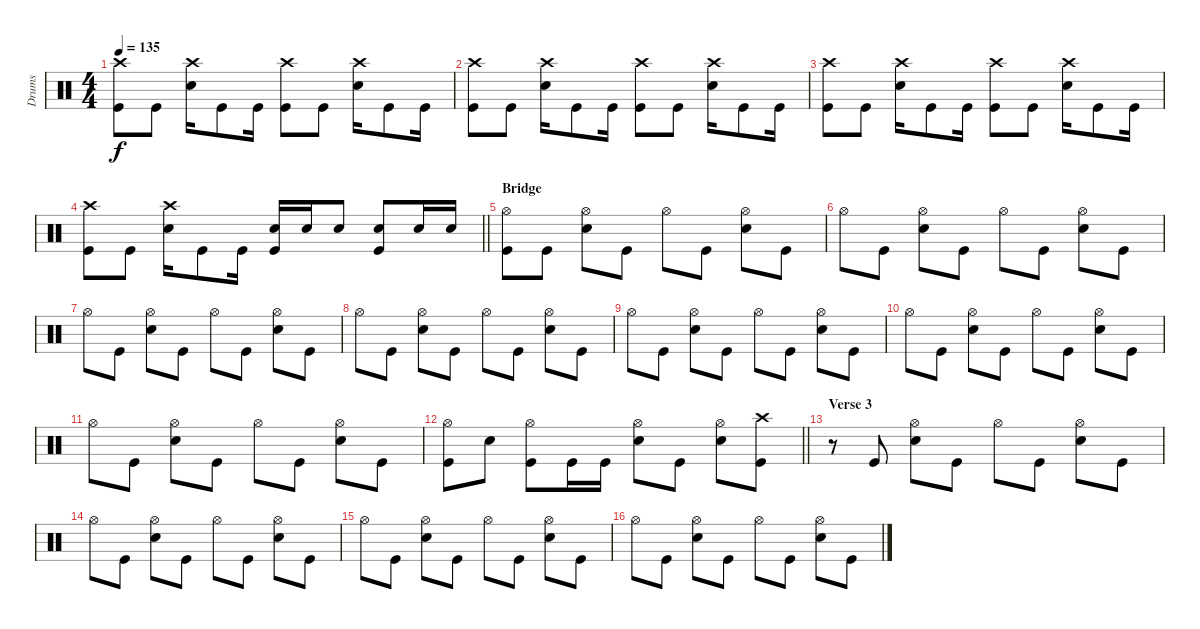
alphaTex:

\track ("Drums" "Drums") {instrument percussion}
\staff {score}
\articulation defaults
\ts (4 4)
\tempo 135
\clef neutral
\ks c
("Kick (hit)" "Crash high (hit)").8{dy f} "Kick (hit)".8 ("Snare (hit) 2" "Crash high (hit)").16 "Kick (hit)".8 "Kick (hit)".16 ("Kick (hit)" "Crash high (hit)").8 "Kick (hit)".8 ("Snare (hit) 2" "Crash high (hit)").16 "Kick (hit)".8 "Kick (hit)".16 |
("Kick (hit)" "Crash high (hit)").8 "Kick (hit)".8 ("Snare (hit) 2" "Crash high (hit)").16 "Kick (hit)".8 "Kick (hit)".16 ("Kick (hit)" "Crash high (hit)").8 "Kick (hit)".8 ("Snare (hit) 2" "Crash high (hit)").16 "Kick (hit)".8 "Kick (hit)".16 |
("Kick (hit)" "Crash high (hit)").8 "Kick (hit)".8 ("Snare (hit) 2" "Crash high (hit)").16 "Kick (hit)".8 "Kick (hit)".16 ("Kick (hit)" "Crash high (hit)").8 "Kick (hit)".8 ("Snare (hit) 2" "Crash high (hit)").16 "Kick (hit)".8 "Kick (hit)".16 |
\barLineRight lightlight
("Kick (hit)" "Crash high (hit)").8 "Kick (hit)".8 ("Snare (hit) 2" "Crash high (hit)").16 "Kick (hit)".8 "Kick (hit)".16 ("Kick (hit)" "Snare (hit) 2").16 "Snare (hit) 2".16 "Snare (hit) 2".8 ("Kick (hit)" "Snare (hit) 2").8 "Snare (hit) 2".16 "Snare (hit) 2".16 |
\section ("" "Bridge")
("Kick (hit)" "Hi-Hat (open)").8 "Kick (hit)".8 ("Snare (hit) 2" "Hi-Hat (open)").8 "Kick (hit)".8 "Hi-Hat (open)".8 "Kick (hit)".8 ("Snare (hit) 2" "Hi-Hat (open)").8 "Kick (hit)".8 |
"Hi-Hat (open)".8 "Kick (hit)".8 ("Snare (hit) 2" "Hi-Hat (open)").8 "Kick (hit)".8 "Hi-Hat (open)".8 "Kick (hit)".8 ("Snare (hit) 2" "Hi-Hat (open)").8 "Kick (hit)".8 |
"Hi-Hat (open)".8 "Kick (hit)".8 ("Snare (hit) 2" "Hi-Hat (open)").8 "Kick (hit)".8 "Hi-Hat (open)".8 "Kick (hit)".8 ("Snare (hit) 2" "Hi-Hat (open)").8 "Kick (hit)".8 |
"Hi-Hat (open)".8 "Kick (hit)".8 ("Snare (hit) 2" "Hi-Hat (open)").8 "Kick (hit)".8 "Hi-Hat (open)".8 "Kick (hit)".8 ("Snare (hit) 2" "Hi-Hat (open)").8 "Kick (hit)".8 |
"Hi-Hat (open)".8 "Kick (hit)".8 ("Snare (hit) 2" "Hi-Hat (open)").8 "Kick (hit)".8 "Hi-Hat (open)".8 "Kick (hit)".8 ("Snare (hit) 2" "Hi-Hat (open)").8 "Kick (hit)".8 |
"Hi-Hat (open)".8 "Kick (hit)".8 ("Snare (hit) 2" "Hi-Hat (open)").8 "Kick (hit)".8 "Hi-Hat (open)".8 "Kick (hit)".8 ("Snare (hit) 2" "Hi-Hat (open)").8 "Kick (hit)".8 |
"Hi-Hat (open)".8 "Kick (hit)".8 ("Snare (hit) 2" "Hi-Hat (open)").8 "Kick (hit)".8 "Hi-Hat (open)".8 "Kick (hit)".8 ("Snare (hit) 2" "Hi-Hat (open)").8 "Kick (hit)".8 |
\barLineRight lightlight
("Kick (hit)" "Hi-Hat (open)").8 "Snare (hit) 2".8 ("Kick (hit)" "Hi-Hat (open)").8 "Kick (hit)".16 "Kick (hit)".16 ("Snare (hit) 2" "Hi-Hat (open)").8 "Kick (hit)".8 ("Snare (hit) 2" "Hi-Hat (open)").8 ("Kick (hit)" "Crash high (hit)").8 |
\section ("" "Verse 3")
r.8 "Kick (hit)".8 ("Snare (hit) 2" "Hi-Hat (open)").8 "Kick (hit)".8 "Hi-Hat (open)".8 "Kick (hit)".8 ("Snare (hit) 2" "Hi-Hat (open)").8 "Kick (hit)".8 |
"Hi-Hat (open)".8 "Kick (hit)".8 ("Snare (hit) 2" "Hi-Hat (open)").8 "Kick (hit)".8 "Hi-Hat (open)".8 "Kick (hit)".8 ("Snare (hit) 2" "Hi-Hat (open)").8 "Kick (hit)".8 |
"Hi-Hat (open)".8 "Kick (hit)".8 ("Snare (hit) 2" "Hi-Hat (open)").8 "Kick (hit)".8 "Hi-Hat (open)".8 "Kick (hit)".8 ("Snare (hit) 2" "Hi-Hat (open)").8 "Kick (hit)".8 |
"Hi-Hat (open)".8 "Kick (hit)".8 ("Snare (hit) 2" "Hi-Hat (open)").8 "Kick (hit)".8 "Hi-Hat (open)".8 "Kick (hit)".8 ("Snare (hit) 2" "Hi-Hat (open)").8 "Kick (hit)".8
